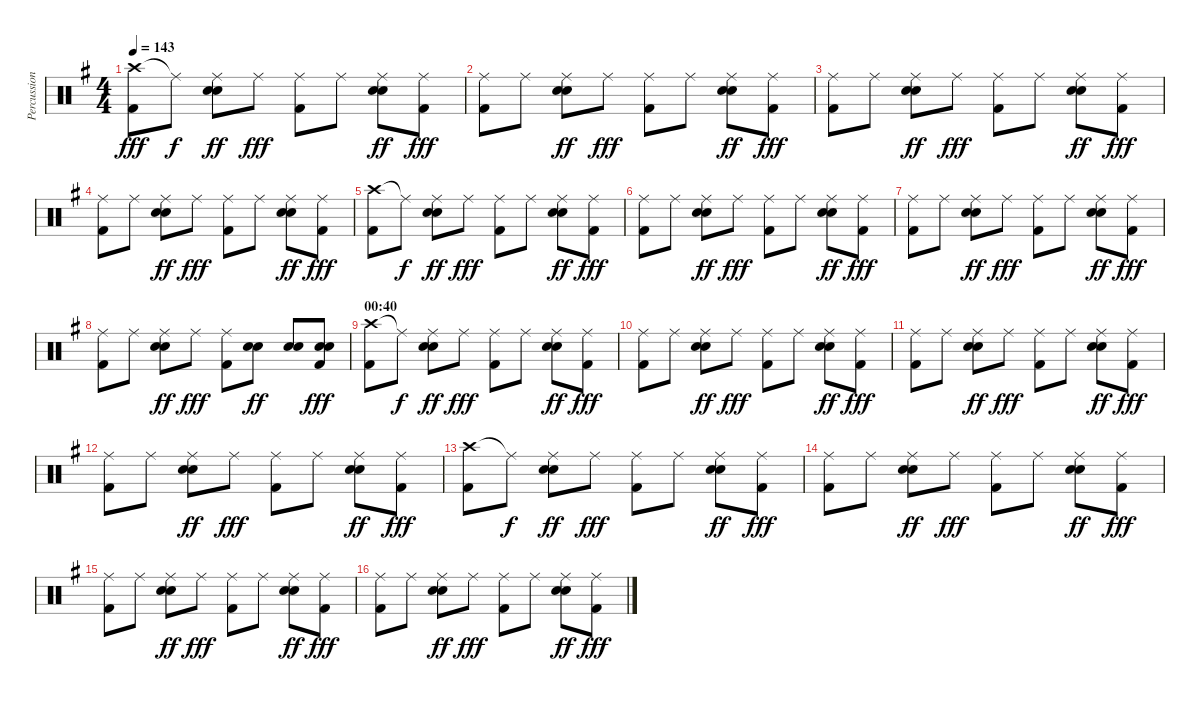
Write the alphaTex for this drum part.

\track ("Percussion" "Percussion") {instrument percussion}
\staff {score}
\articulation defaults
\ts (4 4)
\tempo 143
\clef neutral
\ks g
("Crash high (hit)" "Kick (hit) 2").8{dy fff} "Ride (middle)"{t}.8{dy f} ("Ride (middle)" "Snare (hit) 2" "Electric Snare (hit)").8{dy ff} "Ride (middle)".8{dy fff} ("Ride (middle)" "Kick (hit) 2").8 "Ride (middle)".8 ("Ride (middle)" "Snare (hit) 2" "Electric Snare (hit)").8{dy ff} ("Ride (middle)" "Kick (hit) 2").8{dy fff} |
("Ride (middle)" "Kick (hit) 2").8 "Ride (middle)".8 ("Ride (middle)" "Snare (hit) 2" "Electric Snare (hit)").8{dy ff} "Ride (middle)".8{dy fff} ("Ride (middle)" "Kick (hit) 2").8 "Ride (middle)".8 ("Ride (middle)" "Snare (hit) 2" "Electric Snare (hit)").8{dy ff} ("Ride (middle)" "Kick (hit) 2").8{dy fff} |
("Ride (middle)" "Kick (hit) 2").8 "Ride (middle)".8 ("Ride (middle)" "Snare (hit) 2" "Electric Snare (hit)").8{dy ff} "Ride (middle)".8{dy fff} ("Ride (middle)" "Kick (hit) 2").8 "Ride (middle)".8 ("Ride (middle)" "Snare (hit) 2" "Electric Snare (hit)").8{dy ff} ("Ride (middle)" "Kick (hit) 2").8{dy fff} |
("Ride (middle)" "Kick (hit) 2").8 "Ride (middle)".8 ("Ride (middle)" "Snare (hit) 2" "Electric Snare (hit)").8{dy ff} "Ride (middle)".8{dy fff} ("Ride (middle)" "Kick (hit) 2").8 "Ride (middle)".8 ("Ride (middle)" "Snare (hit) 2" "Electric Snare (hit)").8{dy ff} ("Ride (middle)" "Kick (hit) 2").8{dy fff} |
("Crash high (hit)" "Kick (hit) 2").8 "Ride (middle)"{t}.8{dy f} ("Ride (middle)" "Snare (hit) 2" "Electric Snare (hit)").8{dy ff} "Ride (middle)".8{dy fff} ("Ride (middle)" "Kick (hit) 2").8 "Ride (middle)".8 ("Ride (middle)" "Snare (hit) 2" "Electric Snare (hit)").8{dy ff} ("Ride (middle)" "Kick (hit) 2").8{dy fff} |
("Ride (middle)" "Kick (hit) 2").8 "Ride (middle)".8 ("Ride (middle)" "Snare (hit) 2" "Electric Snare (hit)").8{dy ff} "Ride (middle)".8{dy fff} ("Ride (middle)" "Kick (hit) 2").8 "Ride (middle)".8 ("Ride (middle)" "Snare (hit) 2" "Electric Snare (hit)").8{dy ff} ("Ride (middle)" "Kick (hit) 2").8{dy fff} |
("Ride (middle)" "Kick (hit) 2").8 "Ride (middle)".8 ("Ride (middle)" "Snare (hit) 2" "Electric Snare (hit)").8{dy ff} "Ride (middle)".8{dy fff} ("Ride (middle)" "Kick (hit) 2").8 "Ride (middle)".8 ("Ride (middle)" "Snare (hit) 2" "Electric Snare (hit)").8{dy ff} ("Ride (middle)" "Kick (hit) 2").8{dy fff} |
("Ride (middle)" "Kick (hit) 2").8 "Ride (middle)".8 ("Ride (middle)" "Snare (hit) 2" "Electric Snare (hit)").8{dy ff} "Ride (middle)".8{dy fff} ("Ride (middle)" "Kick (hit) 2").8 ("Snare (hit) 2" "Electric Snare (hit)").8{dy ff} ("Snare (hit) 2" "Electric Snare (hit)").8 ("Snare (hit) 2" "Electric Snare (hit)" "Kick (hit) 2").8{dy fff} |
\section ("" "00:40")
("Crash high (hit)" "Kick (hit) 2").8 "Ride (middle)"{t}.8{dy f} ("Ride (middle)" "Snare (hit) 2" "Electric Snare (hit)").8{dy ff} "Ride (middle)".8{dy fff} ("Ride (middle)" "Kick (hit) 2").8 "Ride (middle)".8 ("Ride (middle)" "Snare (hit) 2" "Electric Snare (hit)").8{dy ff} ("Ride (middle)" "Kick (hit) 2").8{dy fff} |
("Ride (middle)" "Kick (hit) 2").8 "Ride (middle)".8 ("Ride (middle)" "Snare (hit) 2" "Electric Snare (hit)").8{dy ff} "Ride (middle)".8{dy fff} ("Ride (middle)" "Kick (hit) 2").8 "Ride (middle)".8 ("Ride (middle)" "Snare (hit) 2" "Electric Snare (hit)").8{dy ff} ("Ride (middle)" "Kick (hit) 2").8{dy fff} |
("Ride (middle)" "Kick (hit) 2").8 "Ride (middle)".8 ("Ride (middle)" "Snare (hit) 2" "Electric Snare (hit)").8{dy ff} "Ride (middle)".8{dy fff} ("Ride (middle)" "Kick (hit) 2").8 "Ride (middle)".8 ("Ride (middle)" "Snare (hit) 2" "Electric Snare (hit)").8{dy ff} ("Ride (middle)" "Kick (hit) 2").8{dy fff} |
("Ride (middle)" "Kick (hit) 2").8 "Ride (middle)".8 ("Ride (middle)" "Snare (hit) 2" "Electric Snare (hit)").8{dy ff} "Ride (middle)".8{dy fff} ("Ride (middle)" "Kick (hit) 2").8 "Ride (middle)".8 ("Ride (middle)" "Snare (hit) 2" "Electric Snare (hit)").8{dy ff} ("Ride (middle)" "Kick (hit) 2").8{dy fff} |
("Crash high (hit)" "Kick (hit) 2").8 "Ride (middle)"{t}.8{dy f} ("Ride (middle)" "Snare (hit) 2" "Electric Snare (hit)").8{dy ff} "Ride (middle)".8{dy fff} ("Ride (middle)" "Kick (hit) 2").8 "Ride (middle)".8 ("Ride (middle)" "Snare (hit) 2" "Electric Snare (hit)").8{dy ff} ("Ride (middle)" "Kick (hit) 2").8{dy fff} |
("Ride (middle)" "Kick (hit) 2").8 "Ride (middle)".8 ("Ride (middle)" "Snare (hit) 2" "Electric Snare (hit)").8{dy ff} "Ride (middle)".8{dy fff} ("Ride (middle)" "Kick (hit) 2").8 "Ride (middle)".8 ("Ride (middle)" "Snare (hit) 2" "Electric Snare (hit)").8{dy ff} ("Ride (middle)" "Kick (hit) 2").8{dy fff} |
("Ride (middle)" "Kick (hit) 2").8 "Ride (middle)".8 ("Ride (middle)" "Snare (hit) 2" "Electric Snare (hit)").8{dy ff} "Ride (middle)".8{dy fff} ("Ride (middle)" "Kick (hit) 2").8 "Ride (middle)".8 ("Ride (middle)" "Snare (hit) 2" "Electric Snare (hit)").8{dy ff} ("Ride (middle)" "Kick (hit) 2").8{dy fff} |
("Ride (middle)" "Kick (hit) 2").8 "Ride (middle)".8 ("Ride (middle)" "Snare (hit) 2" "Electric Snare (hit)").8{dy ff} "Ride (middle)".8{dy fff} ("Ride (middle)" "Kick (hit) 2").8 "Ride (middle)".8 ("Ride (middle)" "Snare (hit) 2" "Electric Snare (hit)").8{dy ff} ("Ride (middle)" "Kick (hit) 2").8{dy fff}
